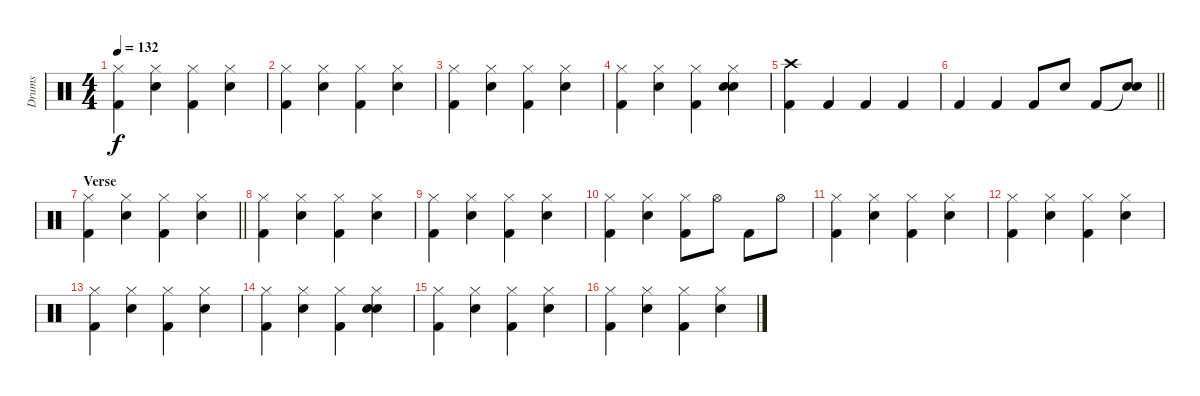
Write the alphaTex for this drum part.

\track ("Drums" "Drums") {instrument percussion}
\staff {score}
\articulation defaults
\ts (4 4)
\tempo 132
\clef neutral
\ks c
("Hi-Hat (closed)" "Kick (hit) 2").4{dy f} ("Hi-Hat (closed)" "Snare (hit) 2").4 ("Hi-Hat (closed)" "Kick (hit) 2").4 ("Hi-Hat (closed)" "Snare (hit) 2").4 |
("Hi-Hat (closed)" "Kick (hit) 2").4 ("Hi-Hat (closed)" "Snare (hit) 2").4 ("Hi-Hat (closed)" "Kick (hit) 2").4 ("Hi-Hat (closed)" "Snare (hit) 2").4 |
("Hi-Hat (closed)" "Kick (hit) 2").4 ("Hi-Hat (closed)" "Snare (hit) 2").4 ("Hi-Hat (closed)" "Kick (hit) 2").4 ("Hi-Hat (closed)" "Snare (hit) 2").4 |
("Hi-Hat (closed)" "Kick (hit) 2").4 ("Hi-Hat (closed)" "Snare (hit) 2").4 ("Hi-Hat (closed)" "Kick (hit) 2").4 ("Hi-Hat (closed)" "Hand Clap (hit)" "Snare (hit) 2").4 |
("Crash high (hit)" "Kick (hit) 2").4 "Kick (hit) 2".4 "Kick (hit) 2".4 "Kick (hit) 2".4 |
\barLineRight lightlight "Kick (hit) 2".4 "Kick (hit) 2".4 "Kick (hit) 2".8 "Snare (hit) 2".8 "Kick (hit) 2".8
("Snare (hit)"{t} "Snare (hit) 2").8 |
\section ("" "Verse")
\barLineRight lightlight
("Hi-Hat (closed)" "Kick (hit) 2").4 ("Hi-Hat (closed)" "Snare (hit) 2").4 ("Hi-Hat (closed)" "Kick (hit) 2").4 ("Hi-Hat (closed)" "Snare (hit) 2").4 |
("Hi-Hat (closed)" "Kick (hit) 2").4 ("Hi-Hat (closed)" "Snare (hit) 2").4 ("Hi-Hat (closed)" "Kick (hit) 2").4 ("Hi-Hat (closed)" "Snare (hit) 2").4 |
("Hi-Hat (closed)" "Kick (hit) 2").4 ("Hi-Hat (closed)" "Snare (hit) 2").4 ("Hi-Hat (closed)" "Kick (hit) 2").4 ("Hi-Hat (closed)" "Snare (hit) 2").4 |
("Hi-Hat (closed)" "Kick (hit) 2").4 ("Hi-Hat (closed)" "Snare (hit) 2").4 ("Hi-Hat (closed)" "Kick (hit) 2").8 "Hi-Hat (open)".8 "Kick (hit) 2".8 "Hi-Hat (open)".8 |
("Hi-Hat (closed)" "Kick (hit) 2").4 ("Hi-Hat (closed)" "Snare (hit) 2").4 ("Hi-Hat (closed)" "Kick (hit) 2").4 ("Hi-Hat (closed)" "Snare (hit) 2").4 |
("Hi-Hat (closed)" "Kick (hit) 2").4 ("Hi-Hat (closed)" "Snare (hit) 2").4 ("Hi-Hat (closed)" "Kick (hit) 2").4 ("Hi-Hat (closed)" "Snare (hit) 2").4 |
("Hi-Hat (closed)" "Kick (hit) 2").4 ("Hi-Hat (closed)" "Snare (hit) 2").4 ("Hi-Hat (closed)" "Kick (hit) 2").4 ("Hi-Hat (closed)" "Snare (hit) 2").4 |
("Hi-Hat (closed)" "Kick (hit) 2").4 ("Hi-Hat (closed)" "Snare (hit) 2").4 ("Hi-Hat (closed)" "Kick (hit) 2").4 ("Hi-Hat (closed)" "Hand Clap (hit)" "Snare (hit) 2").4 |
("Hi-Hat (closed)" "Kick (hit) 2").4 ("Hi-Hat (closed)" "Snare (hit) 2").4 ("Hi-Hat (closed)" "Kick (hit) 2").4 ("Hi-Hat (closed)" "Snare (hit) 2").4 |
("Hi-Hat (closed)" "Kick (hit) 2").4 ("Hi-Hat (closed)" "Snare (hit) 2").4 ("Hi-Hat (closed)" "Kick (hit) 2").4 ("Hi-Hat (closed)" "Snare (hit) 2").4
